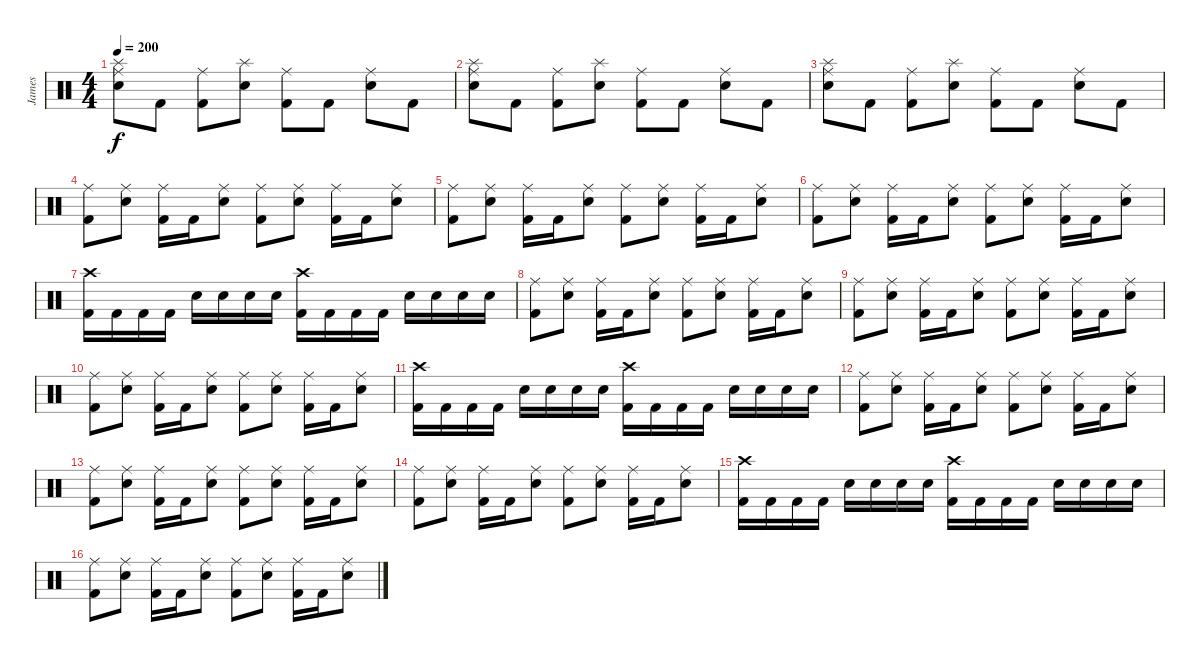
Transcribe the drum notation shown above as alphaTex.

\track ("James" "James") {instrument percussion}
\staff {score}
\articulation defaults
\ts (4 4)
\tempo 200
\clef neutral
\ks c
("Electric Snare (hit)" "Ride (middle)" "Splash (hit)").8{dy f} "Kick (hit) 2".8 ("Kick (hit) 2" "Ride (middle)").8 ("Electric Snare (hit)" "Splash (hit)").8 ("Kick (hit) 2" "Ride (middle)").8 "Kick (hit) 2".8 ("Electric Snare (hit)" "Ride (middle)").8 "Kick (hit) 2".8 |
("Electric Snare (hit)" "Ride (middle)" "Splash (hit)").8 "Kick (hit) 2".8 ("Kick (hit) 2" "Ride (middle)").8 ("Electric Snare (hit)" "Splash (hit)").8 ("Kick (hit) 2" "Ride (middle)").8 "Kick (hit) 2".8 ("Electric Snare (hit)" "Ride (middle)").8 "Kick (hit) 2".8 |
("Electric Snare (hit)" "Ride (middle)" "Splash (hit)").8 "Kick (hit) 2".8 ("Kick (hit) 2" "Ride (middle)").8 ("Electric Snare (hit)" "Splash (hit)").8 ("Kick (hit) 2" "Ride (middle)").8 "Kick (hit) 2".8 ("Electric Snare (hit)" "Ride (middle)").8 "Kick (hit) 2".8 |
("Kick (hit) 2" "Ride (middle)").8 ("Electric Snare (hit)" "Ride (middle)").8 ("Kick (hit) 2" "Ride (middle)").16 "Kick (hit) 2".16 ("Electric Snare (hit)" "Ride (middle)").8 ("Kick (hit) 2" "Ride (middle)").8 ("Electric Snare (hit)" "Ride (middle)").8 ("Kick (hit) 2" "Ride (middle)").16 "Kick (hit) 2".16 ("Electric Snare (hit)" "Ride (middle)").8 |
("Kick (hit) 2" "Ride (middle)").8 ("Electric Snare (hit)" "Ride (middle)").8 ("Kick (hit) 2" "Ride (middle)").16 "Kick (hit) 2".16 ("Electric Snare (hit)" "Ride (middle)").8 ("Kick (hit) 2" "Ride (middle)").8 ("Electric Snare (hit)" "Ride (middle)").8 ("Kick (hit) 2" "Ride (middle)").16 "Kick (hit) 2".16 ("Electric Snare (hit)" "Ride (middle)").8 |
("Kick (hit) 2" "Ride (middle)").8 ("Electric Snare (hit)" "Ride (middle)").8 ("Kick (hit) 2" "Ride (middle)").16 "Kick (hit) 2".16 ("Electric Snare (hit)" "Ride (middle)").8 ("Kick (hit) 2" "Ride (middle)").8 ("Electric Snare (hit)" "Ride (middle)").8 ("Kick (hit) 2" "Ride (middle)").16 "Kick (hit) 2".16 ("Electric Snare (hit)" "Ride (middle)").8 |
("Kick (hit) 2" "Crash high (hit)").16 "Kick (hit) 2".16 "Kick (hit) 2".16 "Kick (hit) 2".16 "Electric Snare (hit)".16 "Electric Snare (hit)".16 "Electric Snare (hit)".16 "Electric Snare (hit)".16 ("Kick (hit) 2" "Crash high (hit)").16 "Kick (hit) 2".16 "Kick (hit) 2".16 "Kick (hit) 2".16 "Electric Snare (hit)".16 "Electric Snare (hit)".16 "Electric Snare (hit)".16 "Electric Snare (hit)".16 |
("Kick (hit) 2" "Ride (middle)").8 ("Electric Snare (hit)" "Ride (middle)").8 ("Kick (hit) 2" "Ride (middle)").16 "Kick (hit) 2".16 ("Electric Snare (hit)" "Ride (middle)").8 ("Kick (hit) 2" "Ride (middle)").8 ("Electric Snare (hit)" "Ride (middle)").8 ("Kick (hit) 2" "Ride (middle)").16 "Kick (hit) 2".16 ("Electric Snare (hit)" "Ride (middle)").8 |
("Kick (hit) 2" "Ride (middle)").8 ("Electric Snare (hit)" "Ride (middle)").8 ("Kick (hit) 2" "Ride (middle)").16 "Kick (hit) 2".16 ("Electric Snare (hit)" "Ride (middle)").8 ("Kick (hit) 2" "Ride (middle)").8 ("Electric Snare (hit)" "Ride (middle)").8 ("Kick (hit) 2" "Ride (middle)").16 "Kick (hit) 2".16 ("Electric Snare (hit)" "Ride (middle)").8 |
("Kick (hit) 2" "Ride (middle)").8 ("Electric Snare (hit)" "Ride (middle)").8 ("Kick (hit) 2" "Ride (middle)").16 "Kick (hit) 2".16 ("Electric Snare (hit)" "Ride (middle)").8 ("Kick (hit) 2" "Ride (middle)").8 ("Electric Snare (hit)" "Ride (middle)").8 ("Kick (hit) 2" "Ride (middle)").16 "Kick (hit) 2".16 ("Electric Snare (hit)" "Ride (middle)").8 |
("Kick (hit) 2" "Crash high (hit)").16 "Kick (hit) 2".16 "Kick (hit) 2".16 "Kick (hit) 2".16 "Electric Snare (hit)".16 "Electric Snare (hit)".16 "Electric Snare (hit)".16 "Electric Snare (hit)".16 ("Kick (hit) 2" "Crash high (hit)").16 "Kick (hit) 2".16 "Kick (hit) 2".16 "Kick (hit) 2".16 "Electric Snare (hit)".16 "Electric Snare (hit)".16 "Electric Snare (hit)".16 "Electric Snare (hit)".16 |
("Kick (hit) 2" "Ride (middle)").8 ("Electric Snare (hit)" "Ride (middle)").8 ("Kick (hit) 2" "Ride (middle)").16 "Kick (hit) 2".16 ("Electric Snare (hit)" "Ride (middle)").8 ("Kick (hit) 2" "Ride (middle)").8 ("Electric Snare (hit)" "Ride (middle)").8 ("Kick (hit) 2" "Ride (middle)").16 "Kick (hit) 2".16 ("Electric Snare (hit)" "Ride (middle)").8 |
("Kick (hit) 2" "Ride (middle)").8 ("Electric Snare (hit)" "Ride (middle)").8 ("Kick (hit) 2" "Ride (middle)").16 "Kick (hit) 2".16 ("Electric Snare (hit)" "Ride (middle)").8 ("Kick (hit) 2" "Ride (middle)").8 ("Electric Snare (hit)" "Ride (middle)").8 ("Kick (hit) 2" "Ride (middle)").16 "Kick (hit) 2".16 ("Electric Snare (hit)" "Ride (middle)").8 |
("Kick (hit) 2" "Ride (middle)").8 ("Electric Snare (hit)" "Ride (middle)").8 ("Kick (hit) 2" "Ride (middle)").16 "Kick (hit) 2".16 ("Electric Snare (hit)" "Ride (middle)").8 ("Kick (hit) 2" "Ride (middle)").8 ("Electric Snare (hit)" "Ride (middle)").8 ("Kick (hit) 2" "Ride (middle)").16 "Kick (hit) 2".16 ("Electric Snare (hit)" "Ride (middle)").8 |
("Kick (hit) 2" "Crash high (hit)").16 "Kick (hit) 2".16 "Kick (hit) 2".16 "Kick (hit) 2".16 "Electric Snare (hit)".16 "Electric Snare (hit)".16 "Electric Snare (hit)".16 "Electric Snare (hit)".16 ("Kick (hit) 2" "Crash high (hit)").16 "Kick (hit) 2".16 "Kick (hit) 2".16 "Kick (hit) 2".16 "Electric Snare (hit)".16 "Electric Snare (hit)".16 "Electric Snare (hit)".16 "Electric Snare (hit)".16 |
("Kick (hit) 2" "Ride (middle)").8 ("Electric Snare (hit)" "Ride (middle)").8 ("Kick (hit) 2" "Ride (middle)").16 "Kick (hit) 2".16 ("Electric Snare (hit)" "Ride (middle)").8 ("Kick (hit) 2" "Ride (middle)").8 ("Electric Snare (hit)" "Ride (middle)").8 ("Kick (hit) 2" "Ride (middle)").16 "Kick (hit) 2".16 ("Electric Snare (hit)" "Ride (middle)").8
